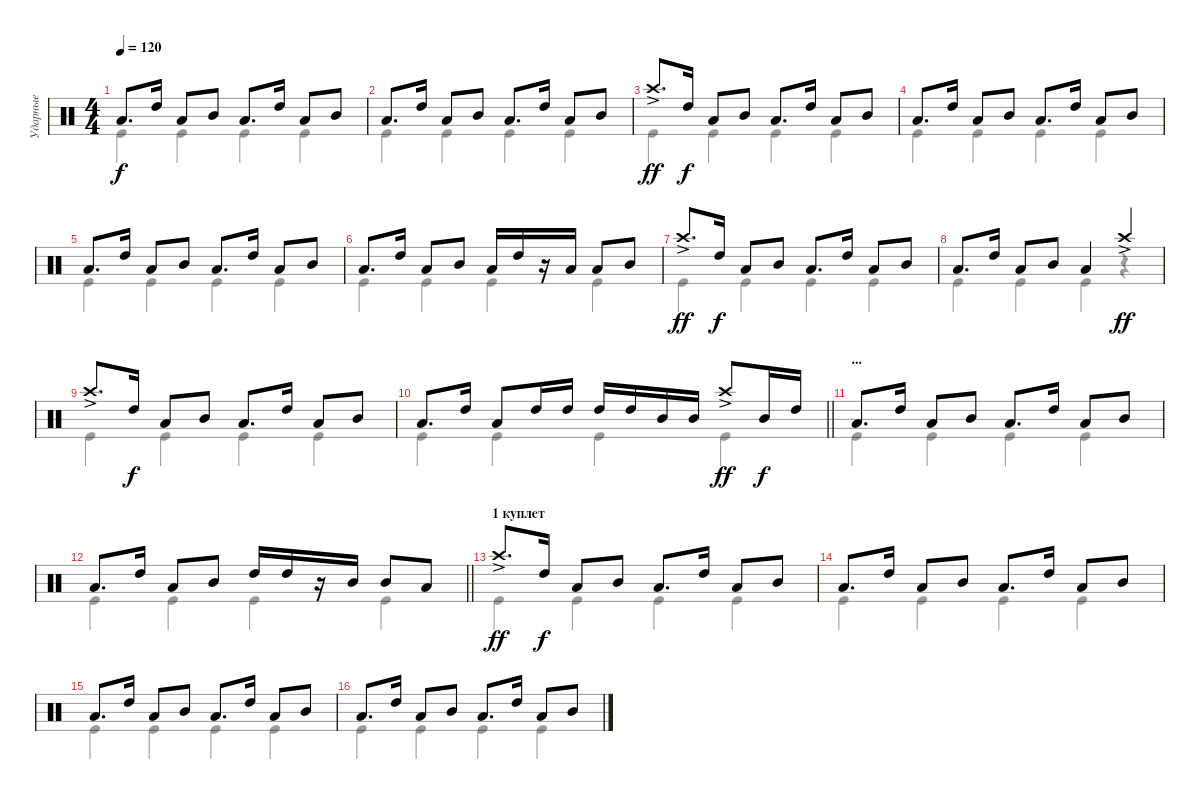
\track ("Ударные" "Ударные") {instrument percussion}
\staff {score}
\articulation defaults
\voice
\ts (4 4)
\tempo 120
\clef neutral
\ks c "Low Tom (hit)".8{d dy f} "High Tom (hit)".16 "Low Tom (hit)".8 "Mid Tom (hit)".8 "Low Tom (hit)".8{d} "High Tom (hit)".16 "Low Tom (hit)".8 "Mid Tom (hit)".8
|
"Low Tom (hit)".8{d} "High Tom (hit)".16 "Low Tom (hit)".8 "Mid Tom (hit)".8 "Low Tom (hit)".8{d} "High Tom (hit)".16 "Low Tom (hit)".8 "Mid Tom (hit)".8 |
"Crash high (hit)"{ac}.8{d dy ff} "High Tom (hit)".16{dy f} "Low Tom (hit)".8 "Mid Tom (hit)".8 "Low Tom (hit)".8{d} "High Tom (hit)".16 "Low Tom (hit)".8 "Mid Tom (hit)".8 |
"Low Tom (hit)".8{d} "High Tom (hit)".16 "Low Tom (hit)".8 "Mid Tom (hit)".8 "Low Tom (hit)".8{d} "High Tom (hit)".16 "Low Tom (hit)".8 "Mid Tom (hit)".8 |
"Low Tom (hit)".8{d} "High Tom (hit)".16 "Low Tom (hit)".8 "Mid Tom (hit)".8 "Low Tom (hit)".8{d} "High Tom (hit)".16 "Low Tom (hit)".8 "Mid Tom (hit)".8 |
"Low Tom (hit)".8{d} "High Tom (hit)".16 "Low Tom (hit)".8 "Mid Tom (hit)".8 "Low Tom (hit)".16 "High Tom (hit)".16 r.16 "Low Tom (hit)".16 "Low Tom (hit)".8 "Mid Tom (hit)".8 |
"Crash high (hit)"{ac}.8{d dy ff} "High Tom (hit)".16{dy f} "Low Tom (hit)".8 "Mid Tom (hit)".8 "Low Tom (hit)".8{d} "High Tom (hit)".16 "Low Tom (hit)".8 "Mid Tom (hit)".8 |
"Low Tom (hit)".8{d} "High Tom (hit)".16 "Low Tom (hit)".8 "Mid Tom (hit)".8 "Low Tom (hit)".4 "Crash high (hit)"{ac}.4{dy ff} |
"Crash high (hit)"{ac}.8{d} "High Tom (hit)".16{dy f} "Low Tom (hit)".8 "Mid Tom (hit)".8 "Low Tom (hit)".8{d} "High Tom (hit)".16 "Low Tom (hit)".8 "Mid Tom (hit)".8 |
\barLineRight lightlight "Low Tom (hit)".8{d} "High Tom (hit)".16 "Low Tom (hit)".8 "High Tom (hit)".16 "High Tom (hit)".16 "High Tom (hit)".16 "High Tom (hit)".16 "Mid Tom (hit)".16 "Mid Tom (hit)".16 "Crash high (hit)"{ac}.8{dy ff} "Mid Tom (hit)".16{dy f} "High Tom (hit)".16
|
\section ("" "...")
"Low Tom (hit)".8{d} "High Tom (hit)".16 "Low Tom (hit)".8 "Mid Tom (hit)".8 "Low Tom (hit)".8{d} "High Tom (hit)".16 "Low Tom (hit)".8 "Mid Tom (hit)".8 |
\barLineRight lightlight "Low Tom (hit)".8{d} "High Tom (hit)".16 "Low Tom (hit)".8 "Mid Tom (hit)".8 "High Tom (hit)".16 "High Tom (hit)".16
r.16 "Mid Tom (hit)".16 "Mid Tom (hit)".8 "Low Tom (hit)".8 |
\section ("" "1 куплет")
"Crash high (hit)"{ac}.8{d dy ff} "High Tom (hit)".16{dy f} "Low Tom (hit)".8 "Mid Tom (hit)".8 "Low Tom (hit)".8{d} "High Tom (hit)".16 "Low Tom (hit)".8 "Mid Tom (hit)".8 |
"Low Tom (hit)".8{d} "High Tom (hit)".16 "Low Tom (hit)".8 "Mid Tom (hit)".8 "Low Tom (hit)".8{d} "High Tom (hit)".16 "Low Tom (hit)".8 "Mid Tom (hit)".8 |
"Low Tom (hit)".8{d} "High Tom (hit)".16 "Low Tom (hit)".8 "Mid Tom (hit)".8 "Low Tom (hit)".8{d} "High Tom (hit)".16 "Low Tom (hit)".8 "Mid Tom (hit)".8 |
"Low Tom (hit)".8{d} "High Tom (hit)".16 "Low Tom (hit)".8 "Mid Tom (hit)".8 "Low Tom (hit)".8{d} "High Tom (hit)".16 "Low Tom (hit)".8 "Mid Tom (hit)".8
\voice
\clef neutral
\ottava regular
\simile none
\ks c "Kick (hit)".4{dy f} "Kick (hit)".4 "Kick (hit)".4 "Kick (hit)".4
|
"Kick (hit)".4 "Kick (hit)".4 "Kick (hit)".4 "Kick (hit)".4 |
"Kick (hit)".4 "Kick (hit)".4 "Kick (hit)".4 "Kick (hit)".4 |
"Kick (hit)".4 "Kick (hit)".4 "Kick (hit)".4 "Kick (hit)".4 |
"Kick (hit)".4 "Kick (hit)".4 "Kick (hit)".4 "Kick (hit)".4 |
"Kick (hit)".4 "Kick (hit)".4 "Kick (hit)".4 "Kick (hit)".4 |
"Kick (hit)".4 "Kick (hit)".4 "Kick (hit)".4 "Kick (hit)".4 |
"Kick (hit)".4 "Kick (hit)".4 "Kick (hit)".4 r.4 |
"Kick (hit)".4 "Kick (hit)".4 "Kick (hit)".4 "Kick (hit)".4 |
\barLineRight lightlight "Kick (hit)".4 "Kick (hit)".4 "Kick (hit)".4 "Kick (hit)".4
|
"Kick (hit)".4 "Kick (hit)".4 "Kick (hit)".4 "Kick (hit)".4 |
\barLineRight lightlight "Kick (hit)".4 "Kick (hit)".4 "Kick (hit)".4 "Kick (hit)".4
|
"Kick (hit)".4 "Kick (hit)".4 "Kick (hit)".4 "Kick (hit)".4 |
"Kick (hit)".4 "Kick (hit)".4 "Kick (hit)".4 "Kick (hit)".4 |
"Kick (hit)".4 "Kick (hit)".4 "Kick (hit)".4 "Kick (hit)".4 |
"Kick (hit)".4 "Kick (hit)".4 "Kick (hit)".4 "Kick (hit)".4
